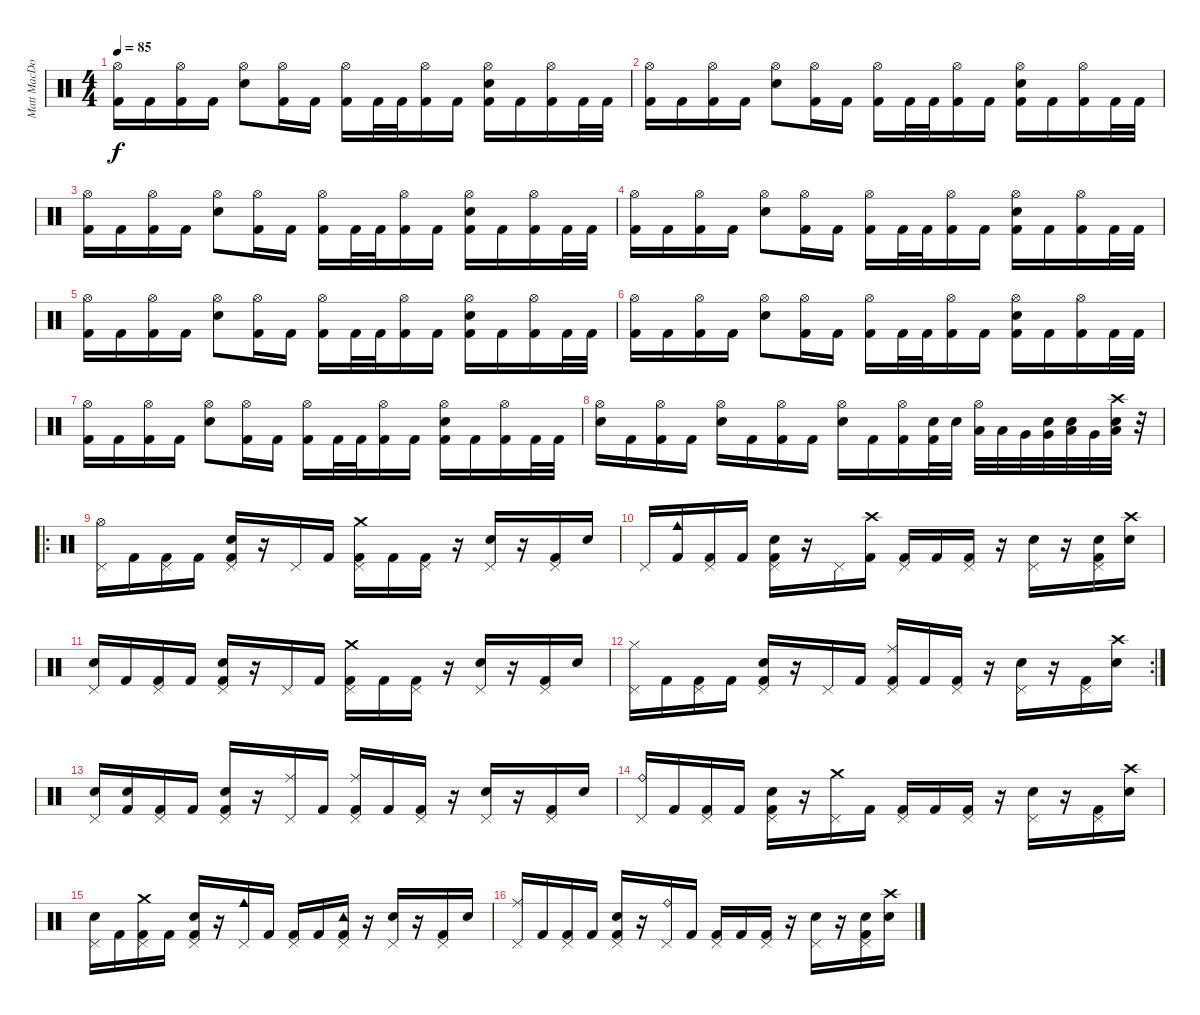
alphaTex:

\track ("Matt MacDonough" "Matt MacDo") {instrument percussion}
\staff {score}
\articulation defaults
\ts (4 4)
\tempo 85
\clef neutral
\ks c
("Hi-Hat (open)" "Kick (hit) 2").16{dy f} "Kick (hit) 2".16 ("Hi-Hat (open)" "Kick (hit) 2").16 "Kick (hit) 2".16 ("Hi-Hat (open)" "Electric Snare (hit)").8 ("Hi-Hat (open)" "Kick (hit) 2").16 "Kick (hit) 2".16 ("Hi-Hat (open)" "Kick (hit) 2").16 "Kick (hit) 2".32 "Kick (hit) 2".32 ("Hi-Hat (open)" "Kick (hit) 2").16 "Kick (hit) 2".16 ("Hi-Hat (open)" "Electric Snare (hit)" "Kick (hit) 2").16 "Kick (hit) 2".16 ("Hi-Hat (open)" "Kick (hit) 2").16 "Kick (hit) 2".32 "Kick (hit) 2".32 |
("Hi-Hat (open)" "Kick (hit) 2").16 "Kick (hit) 2".16 ("Hi-Hat (open)" "Kick (hit) 2").16 "Kick (hit) 2".16 ("Hi-Hat (open)" "Electric Snare (hit)").8 ("Hi-Hat (open)" "Kick (hit) 2").16 "Kick (hit) 2".16 ("Hi-Hat (open)" "Kick (hit) 2").16 "Kick (hit) 2".32 "Kick (hit) 2".32 ("Hi-Hat (open)" "Kick (hit) 2").16 "Kick (hit) 2".16 ("Hi-Hat (open)" "Electric Snare (hit)" "Kick (hit) 2").16 "Kick (hit) 2".16 ("Hi-Hat (open)" "Kick (hit) 2").16 "Kick (hit) 2".32 "Kick (hit) 2".32 |
("Hi-Hat (open)" "Kick (hit) 2").16 "Kick (hit) 2".16 ("Hi-Hat (open)" "Kick (hit) 2").16 "Kick (hit) 2".16 ("Hi-Hat (open)" "Electric Snare (hit)").8 ("Hi-Hat (open)" "Kick (hit) 2").16 "Kick (hit) 2".16 ("Hi-Hat (open)" "Kick (hit) 2").16 "Kick (hit) 2".32 "Kick (hit) 2".32 ("Hi-Hat (open)" "Kick (hit) 2").16 "Kick (hit) 2".16 ("Hi-Hat (open)" "Electric Snare (hit)" "Kick (hit) 2").16 "Kick (hit) 2".16 ("Hi-Hat (open)" "Kick (hit) 2").16 "Kick (hit) 2".32 "Kick (hit) 2".32 |
("Hi-Hat (open)" "Kick (hit) 2").16 "Kick (hit) 2".16 ("Hi-Hat (open)" "Kick (hit) 2").16 "Kick (hit) 2".16 ("Hi-Hat (open)" "Electric Snare (hit)").8 ("Hi-Hat (open)" "Kick (hit) 2").16 "Kick (hit) 2".16 ("Hi-Hat (open)" "Kick (hit) 2").16 "Kick (hit) 2".32 "Kick (hit) 2".32 ("Hi-Hat (open)" "Kick (hit) 2").16 "Kick (hit) 2".16 ("Hi-Hat (open)" "Electric Snare (hit)" "Kick (hit) 2").16 "Kick (hit) 2".16 ("Hi-Hat (open)" "Kick (hit) 2").16 "Kick (hit) 2".32 "Kick (hit) 2".32 |
("Hi-Hat (open)" "Kick (hit) 2").16 "Kick (hit) 2".16 ("Hi-Hat (open)" "Kick (hit) 2").16 "Kick (hit) 2".16 ("Hi-Hat (open)" "Electric Snare (hit)").8 ("Hi-Hat (open)" "Kick (hit) 2").16 "Kick (hit) 2".16 ("Hi-Hat (open)" "Kick (hit) 2").16 "Kick (hit) 2".32 "Kick (hit) 2".32 ("Hi-Hat (open)" "Kick (hit) 2").16 "Kick (hit) 2".16 ("Hi-Hat (open)" "Electric Snare (hit)" "Kick (hit) 2").16 "Kick (hit) 2".16 ("Hi-Hat (open)" "Kick (hit) 2").16 "Kick (hit) 2".32 "Kick (hit) 2".32 |
("Hi-Hat (open)" "Kick (hit) 2").16 "Kick (hit) 2".16 ("Hi-Hat (open)" "Kick (hit) 2").16 "Kick (hit) 2".16 ("Hi-Hat (open)" "Electric Snare (hit)").8 ("Hi-Hat (open)" "Kick (hit) 2").16 "Kick (hit) 2".16 ("Hi-Hat (open)" "Kick (hit) 2").16 "Kick (hit) 2".32 "Kick (hit) 2".32 ("Hi-Hat (open)" "Kick (hit) 2").16 "Kick (hit) 2".16 ("Hi-Hat (open)" "Electric Snare (hit)" "Kick (hit) 2").16 "Kick (hit) 2".16 ("Hi-Hat (open)" "Kick (hit) 2").16 "Kick (hit) 2".32 "Kick (hit) 2".32 |
("Hi-Hat (open)" "Kick (hit) 2").16 "Kick (hit) 2".16 ("Hi-Hat (open)" "Kick (hit) 2").16 "Kick (hit) 2".16 ("Hi-Hat (open)" "Electric Snare (hit)").8 ("Hi-Hat (open)" "Kick (hit) 2").16 "Kick (hit) 2".16 ("Hi-Hat (open)" "Kick (hit) 2").16 "Kick (hit) 2".32 "Kick (hit) 2".32 ("Hi-Hat (open)" "Kick (hit) 2").16 "Kick (hit) 2".16 ("Hi-Hat (open)" "Electric Snare (hit)" "Kick (hit) 2").16 "Kick (hit) 2".16 ("Hi-Hat (open)" "Kick (hit) 2").16 "Kick (hit) 2".32 "Kick (hit) 2".32 |
("Hi-Hat (open)" "Electric Snare (hit)").16 "Kick (hit) 2".16 ("Hi-Hat (open)" "Kick (hit) 2").16 "Kick (hit) 2".16 ("Hi-Hat (open)" "Electric Snare (hit)").16 "Kick (hit) 2".16 ("Hi-Hat (open)" "Kick (hit) 2").16 "Kick (hit) 2".16 ("Hi-Hat (open)" "Electric Snare (hit)").16 "Kick (hit) 2".16 ("Hi-Hat (open)" "Kick (hit) 2").16 ("Electric Snare (hit)" "Kick (hit) 2").32 "Electric Snare (hit)".32 ("Hi-Hat (open)" "Low Tom (hit)").32 "Low Tom (hit)".32 "Very Low Tom (hit)".32 ("Electric Snare (hit)" "Very Low Tom (hit)").32 ("Electric Snare (hit)" "Low Tom (hit)").32 "Very Low Tom (hit)".32 ("Crash high (hit)" "Snare (hit)" "Low Floor Tom (hit)").32 r.32 |
\ro
("Hi-Hat (open)" "Pedal Hi-Hat (hit)").16 "Kick (hit) 2".16 ("Pedal Hi-Hat (hit)" "Kick (hit) 2").16 "Kick (hit) 2".16 ("Electric Snare (hit)" "Pedal Hi-Hat (hit)" "Kick (hit) 2").16 r.16 "Pedal Hi-Hat (hit)".16 "Kick (hit) 2".16 ("Crash medium (hit)" "Pedal Hi-Hat (hit)" "Kick (hit) 2").16 "Kick (hit) 2".16 ("Pedal Hi-Hat (hit)" "Kick (hit) 2").16 r.16 ("Electric Snare (hit)" "Pedal Hi-Hat (hit)").16 r.16 ("Pedal Hi-Hat (hit)" "Kick (hit) 2").16 "Electric Snare (hit)".16 |
"Pedal Hi-Hat (hit)".16 ("Cowbell medium (hit)" "Kick (hit) 2").16 ("Pedal Hi-Hat (hit)" "Kick (hit) 2").16 "Kick (hit) 2".16 ("Electric Snare (hit)" "Pedal Hi-Hat (hit)" "Kick (hit) 2").16 r.16 "Pedal Hi-Hat (hit)".16 ("Crash high (hit)" "Kick (hit) 2").16 ("Pedal Hi-Hat (hit)" "Kick (hit) 2").16 "Kick (hit) 2".16 ("Pedal Hi-Hat (hit)" "Kick (hit) 2").16 r.16 ("Electric Snare (hit)" "Pedal Hi-Hat (hit)").16 r.16 ("Electric Snare (hit)" "Pedal Hi-Hat (hit)" "Kick (hit) 2").16 ("Crash high (hit)" "Electric Snare (hit)").16 |
("Electric Snare (hit)" "Pedal Hi-Hat (hit)").16 "Kick (hit) 2".16 ("Pedal Hi-Hat (hit)" "Kick (hit) 2").16 "Kick (hit) 2".16 ("Electric Snare (hit)" "Pedal Hi-Hat (hit)" "Kick (hit) 2").16 r.16 "Pedal Hi-Hat (hit)".16 "Kick (hit) 2".16 ("Crash medium (hit)" "Pedal Hi-Hat (hit)" "Kick (hit) 2").16 "Kick (hit) 2".16 ("Pedal Hi-Hat (hit)" "Kick (hit) 2").16 r.16 ("Electric Snare (hit)" "Pedal Hi-Hat (hit)").16 r.16 ("Pedal Hi-Hat (hit)" "Kick (hit) 2").16 "Electric Snare (hit)".16 |
\rc 2
("Hi-Hat (closed)" "Pedal Hi-Hat (hit)").16 "Kick (hit) 2".16 ("Pedal Hi-Hat (hit)" "Kick (hit) 2").16 "Kick (hit) 2".16 ("Electric Snare (hit)" "Pedal Hi-Hat (hit)" "Kick (hit) 2").16 r.16 "Pedal Hi-Hat (hit)".16 "Kick (hit) 2".16 ("Ride (middle)" "Pedal Hi-Hat (hit)" "Kick (hit) 2").16 "Kick (hit) 2".16 ("Pedal Hi-Hat (hit)" "Kick (hit) 2").16 r.16 ("Electric Snare (hit)" "Pedal Hi-Hat (hit)").16 r.16 ("Pedal Hi-Hat (hit)" "Kick (hit) 2").16 ("Crash high (hit)" "Electric Snare (hit)").16 |
("Electric Snare (hit)" "Pedal Hi-Hat (hit)").16 ("Electric Snare (hit)" "Kick (hit) 2").16 ("Pedal Hi-Hat (hit)" "Kick (hit) 2").16 "Kick (hit) 2".16 ("Electric Snare (hit)" "Pedal Hi-Hat (hit)" "Kick (hit) 2").16 r.16 ("Ride (middle)" "Pedal Hi-Hat (hit)").16 "Kick (hit) 2".16 ("Ride (middle)" "Pedal Hi-Hat (hit)" "Kick (hit) 2").16 "Kick (hit) 2".16 ("Pedal Hi-Hat (hit)" "Kick (hit) 2").16 r.16 ("Electric Snare (hit)" "Pedal Hi-Hat (hit)").16 r.16 ("Pedal Hi-Hat (hit)" "Kick (hit) 2").16 "Electric Snare (hit)".16 |
("Ride (bell)" "Pedal Hi-Hat (hit)").16 "Kick (hit) 2".16 ("Pedal Hi-Hat (hit)" "Kick (hit) 2").16 "Kick (hit) 2".16 ("Electric Snare (hit)" "Pedal Hi-Hat (hit)" "Kick (hit) 2").16 r.16 ("Crash medium (hit)" "Pedal Hi-Hat (hit)").16 "Kick (hit) 2".16 ("Pedal Hi-Hat (hit)" "Kick (hit) 2").16 "Kick (hit) 2".16 ("Pedal Hi-Hat (hit)" "Kick (hit) 2").16 r.16 ("Electric Snare (hit)" "Pedal Hi-Hat (hit)").16 r.16 ("Pedal Hi-Hat (hit)" "Kick (hit) 2").16 ("Crash high (hit)" "Electric Snare (hit)").16 |
("Electric Snare (hit)" "Pedal Hi-Hat (hit)").16 "Kick (hit) 2".16 ("Crash medium (hit)" "Pedal Hi-Hat (hit)" "Kick (hit) 2").16 "Kick (hit) 2".16 ("Electric Snare (hit)" "Pedal Hi-Hat (hit)" "Kick (hit) 2").16 r.16 ("Cowbell medium (hit)" "Pedal Hi-Hat (hit)").16 "Kick (hit) 2".16 ("Pedal Hi-Hat (hit)" "Kick (hit) 2").16 "Kick (hit) 2".16 ("Tambourine (hit)" "Pedal Hi-Hat (hit)" "Kick (hit) 2").16 r.16 ("Electric Snare (hit)" "Pedal Hi-Hat (hit)").16 r.16 ("Pedal Hi-Hat (hit)" "Kick (hit) 2").16 "Electric Snare (hit)".16 |
("Ride (middle)" "Pedal Hi-Hat (hit)").16 "Kick (hit) 2".16 ("Pedal Hi-Hat (hit)" "Kick (hit) 2").16 "Kick (hit) 2".16 ("Electric Snare (hit)" "Pedal Hi-Hat (hit)" "Kick (hit) 2").16 r.16 ("Ride (bell)" "Pedal Hi-Hat (hit)").16 "Kick (hit) 2".16 ("Pedal Hi-Hat (hit)" "Kick (hit) 2").16 "Kick (hit) 2".16 ("Pedal Hi-Hat (hit)" "Kick (hit) 2").16 r.16 ("Electric Snare (hit)" "Pedal Hi-Hat (hit)").16 r.16 ("Electric Snare (hit)" "Pedal Hi-Hat (hit)" "Kick (hit) 2").16 ("Crash high (hit)" "Electric Snare (hit)").16
